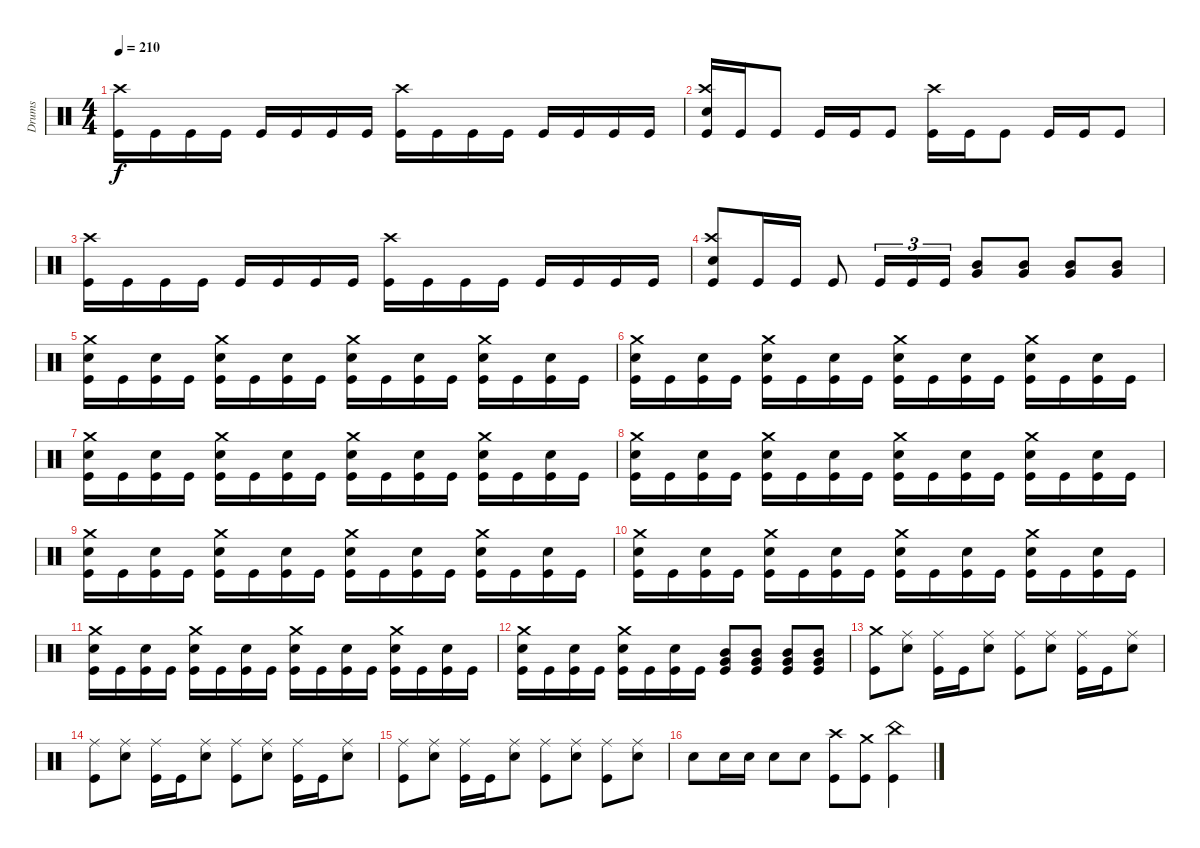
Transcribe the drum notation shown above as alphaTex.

\track ("Drums" "Drums") {instrument percussion}
\staff {score}
\articulation defaults
\ts (4 4)
\tempo 210
\clef neutral
\ks c
("Kick (hit)" "Crash high (hit)").16{dy f} "Kick (hit)".16 "Kick (hit)".16 "Kick (hit)".16 "Kick (hit)".16 "Kick (hit)".16 "Kick (hit)".16 "Kick (hit)".16 ("Kick (hit)" "Crash high (hit)").16 "Kick (hit)".16 "Kick (hit)".16 "Kick (hit)".16 "Kick (hit)".16 "Kick (hit)".16 "Kick (hit)".16 "Kick (hit)".16 |
("Kick (hit)" "Electric Snare (hit)" "Crash high (hit)").16 "Kick (hit)".16 "Kick (hit)".8 "Kick (hit)".16 "Kick (hit)".16 "Kick (hit)".8 ("Kick (hit)" "Crash high (hit)").16 "Kick (hit)".16 "Kick (hit)".8 "Kick (hit)".16 "Kick (hit)".16 "Kick (hit)".8 |
("Kick (hit)" "Crash high (hit)").16 "Kick (hit)".16 "Kick (hit)".16 "Kick (hit)".16 "Kick (hit)".16 "Kick (hit)".16 "Kick (hit)".16 "Kick (hit)".16 ("Kick (hit)" "Crash high (hit)").16 "Kick (hit)".16 "Kick (hit)".16 "Kick (hit)".16 "Kick (hit)".16 "Kick (hit)".16 "Kick (hit)".16 "Kick (hit)".16 |
("Kick (hit)" "Electric Snare (hit)" "Crash high (hit)").8 "Kick (hit)".16 "Kick (hit)".16 "Kick (hit)".8 "Kick (hit)".16{tu (3 2)} "Kick (hit)".16{tu (3 2)} "Kick (hit)".16{tu (3 2)} ("Very Low Tom (hit)" "Mid Tom (hit)").8 ("Very Low Tom (hit)" "Mid Tom (hit)").8 ("Very Low Tom (hit)" "Mid Tom (hit)").8 ("Very Low Tom (hit)" "Mid Tom (hit)").8 |
("Kick (hit)" "Electric Snare (hit)" "Crash medium (hit)").16 "Kick (hit)".16 ("Kick (hit)" "Electric Snare (hit)").16 "Kick (hit)".16 ("Kick (hit)" "Electric Snare (hit)" "Crash medium (hit)").16 "Kick (hit)".16 ("Kick (hit)" "Electric Snare (hit)").16 "Kick (hit)".16 ("Kick (hit)" "Electric Snare (hit)" "Crash medium (hit)").16 "Kick (hit)".16 ("Kick (hit)" "Electric Snare (hit)").16 "Kick (hit)".16 ("Kick (hit)" "Electric Snare (hit)" "Crash medium (hit)").16 "Kick (hit)".16 ("Kick (hit)" "Electric Snare (hit)").16 "Kick (hit)".16 |
("Kick (hit)" "Electric Snare (hit)" "Crash medium (hit)").16 "Kick (hit)".16 ("Kick (hit)" "Electric Snare (hit)").16 "Kick (hit)".16 ("Kick (hit)" "Electric Snare (hit)" "Crash medium (hit)").16 "Kick (hit)".16 ("Kick (hit)" "Electric Snare (hit)").16 "Kick (hit)".16 ("Kick (hit)" "Electric Snare (hit)" "Crash medium (hit)").16 "Kick (hit)".16 ("Kick (hit)" "Electric Snare (hit)").16 "Kick (hit)".16 ("Kick (hit)" "Electric Snare (hit)" "Crash medium (hit)").16 "Kick (hit)".16 ("Kick (hit)" "Electric Snare (hit)").16 "Kick (hit)".16 |
("Kick (hit)" "Electric Snare (hit)" "Crash medium (hit)").16 "Kick (hit)".16 ("Kick (hit)" "Electric Snare (hit)").16 "Kick (hit)".16 ("Kick (hit)" "Electric Snare (hit)" "Crash medium (hit)").16 "Kick (hit)".16 ("Kick (hit)" "Electric Snare (hit)").16 "Kick (hit)".16 ("Kick (hit)" "Electric Snare (hit)" "Crash medium (hit)").16 "Kick (hit)".16 ("Kick (hit)" "Electric Snare (hit)").16 "Kick (hit)".16 ("Kick (hit)" "Electric Snare (hit)" "Crash medium (hit)").16 "Kick (hit)".16 ("Kick (hit)" "Electric Snare (hit)").16 "Kick (hit)".16 |
("Kick (hit)" "Electric Snare (hit)" "Crash medium (hit)").16 "Kick (hit)".16 ("Kick (hit)" "Electric Snare (hit)").16 "Kick (hit)".16 ("Kick (hit)" "Electric Snare (hit)" "Crash medium (hit)").16 "Kick (hit)".16 ("Kick (hit)" "Electric Snare (hit)").16 "Kick (hit)".16 ("Kick (hit)" "Electric Snare (hit)" "Crash medium (hit)").16 "Kick (hit)".16 ("Kick (hit)" "Electric Snare (hit)").16 "Kick (hit)".16 ("Kick (hit)" "Electric Snare (hit)" "Crash medium (hit)").16 "Kick (hit)".16 ("Kick (hit)" "Electric Snare (hit)").16 "Kick (hit)".16 |
("Kick (hit)" "Electric Snare (hit)" "Crash medium (hit)").16 "Kick (hit)".16 ("Kick (hit)" "Electric Snare (hit)").16 "Kick (hit)".16 ("Kick (hit)" "Electric Snare (hit)" "Crash medium (hit)").16 "Kick (hit)".16 ("Kick (hit)" "Electric Snare (hit)").16 "Kick (hit)".16 ("Kick (hit)" "Electric Snare (hit)" "Crash medium (hit)").16 "Kick (hit)".16 ("Kick (hit)" "Electric Snare (hit)").16 "Kick (hit)".16 ("Kick (hit)" "Electric Snare (hit)" "Crash medium (hit)").16 "Kick (hit)".16 ("Kick (hit)" "Electric Snare (hit)").16 "Kick (hit)".16 |
("Kick (hit)" "Electric Snare (hit)" "Crash medium (hit)").16 "Kick (hit)".16 ("Kick (hit)" "Electric Snare (hit)").16 "Kick (hit)".16 ("Kick (hit)" "Electric Snare (hit)" "Crash medium (hit)").16 "Kick (hit)".16 ("Kick (hit)" "Electric Snare (hit)").16 "Kick (hit)".16 ("Kick (hit)" "Electric Snare (hit)" "Crash medium (hit)").16 "Kick (hit)".16 ("Kick (hit)" "Electric Snare (hit)").16 "Kick (hit)".16 ("Kick (hit)" "Electric Snare (hit)" "Crash medium (hit)").16 "Kick (hit)".16 ("Kick (hit)" "Electric Snare (hit)").16 "Kick (hit)".16 |
("Kick (hit)" "Electric Snare (hit)" "Crash medium (hit)").16 "Kick (hit)".16 ("Kick (hit)" "Electric Snare (hit)").16 "Kick (hit)".16 ("Kick (hit)" "Electric Snare (hit)" "Crash medium (hit)").16 "Kick (hit)".16 ("Kick (hit)" "Electric Snare (hit)").16 "Kick (hit)".16 ("Kick (hit)" "Electric Snare (hit)" "Crash medium (hit)").16 "Kick (hit)".16 ("Kick (hit)" "Electric Snare (hit)").16 "Kick (hit)".16 ("Kick (hit)" "Electric Snare (hit)" "Crash medium (hit)").16 "Kick (hit)".16 ("Kick (hit)" "Electric Snare (hit)").16 "Kick (hit)".16 |
("Kick (hit)" "Electric Snare (hit)" "Crash medium (hit)").16 "Kick (hit)".16 ("Kick (hit)" "Electric Snare (hit)").16 "Kick (hit)".16 ("Kick (hit)" "Electric Snare (hit)" "Crash medium (hit)").16 "Kick (hit)".16 ("Kick (hit)" "Electric Snare (hit)").16 "Kick (hit)".16 ("Kick (hit)" "Very Low Tom (hit)" "Mid Tom (hit)").8 ("Kick (hit)" "Very Low Tom (hit)" "Mid Tom (hit)").8 ("Kick (hit)" "Very Low Tom (hit)" "Mid Tom (hit)").8 ("Kick (hit)" "Very Low Tom (hit)" "Mid Tom (hit)").8 |
("Kick (hit)" "Crash medium (hit)").8 ("Electric Snare (hit)" "Ride (middle)").8 ("Kick (hit)" "Ride (middle)").16 "Kick (hit)".16 ("Electric Snare (hit)" "Ride (middle)").8 ("Kick (hit)" "Ride (middle)").8 ("Electric Snare (hit)" "Ride (middle)").8 ("Kick (hit)" "Ride (middle)").16 "Kick (hit)".16 ("Electric Snare (hit)" "Ride (middle)").8 |
("Kick (hit)" "Ride (middle)").8 ("Electric Snare (hit)" "Ride (middle)").8 ("Kick (hit)" "Ride (middle)").16 "Kick (hit)".16 ("Electric Snare (hit)" "Ride (middle)").8 ("Kick (hit)" "Ride (middle)").8 ("Electric Snare (hit)" "Ride (middle)").8 ("Kick (hit)" "Ride (middle)").16 "Kick (hit)".16 ("Electric Snare (hit)" "Ride (middle)").8 |
("Kick (hit)" "Ride (middle)").8 ("Electric Snare (hit)" "Ride (middle)").8 ("Kick (hit)" "Ride (middle)").16 "Kick (hit)".16 ("Electric Snare (hit)" "Ride (middle)").8 ("Kick (hit)" "Ride (middle)").8 ("Electric Snare (hit)" "Ride (middle)").8 ("Kick (hit)" "Ride (middle)").8 ("Electric Snare (hit)" "Ride (middle)").8 |
"Electric Snare (hit)".8 "Electric Snare (hit)".16 "Electric Snare (hit)".16 "Electric Snare (hit)".8 "Electric Snare (hit)".8 ("Kick (hit)" "Crash high (hit)").8 ("Kick (hit)" "Crash medium (hit)").8 ("Kick (hit)" "China (hit)").4
